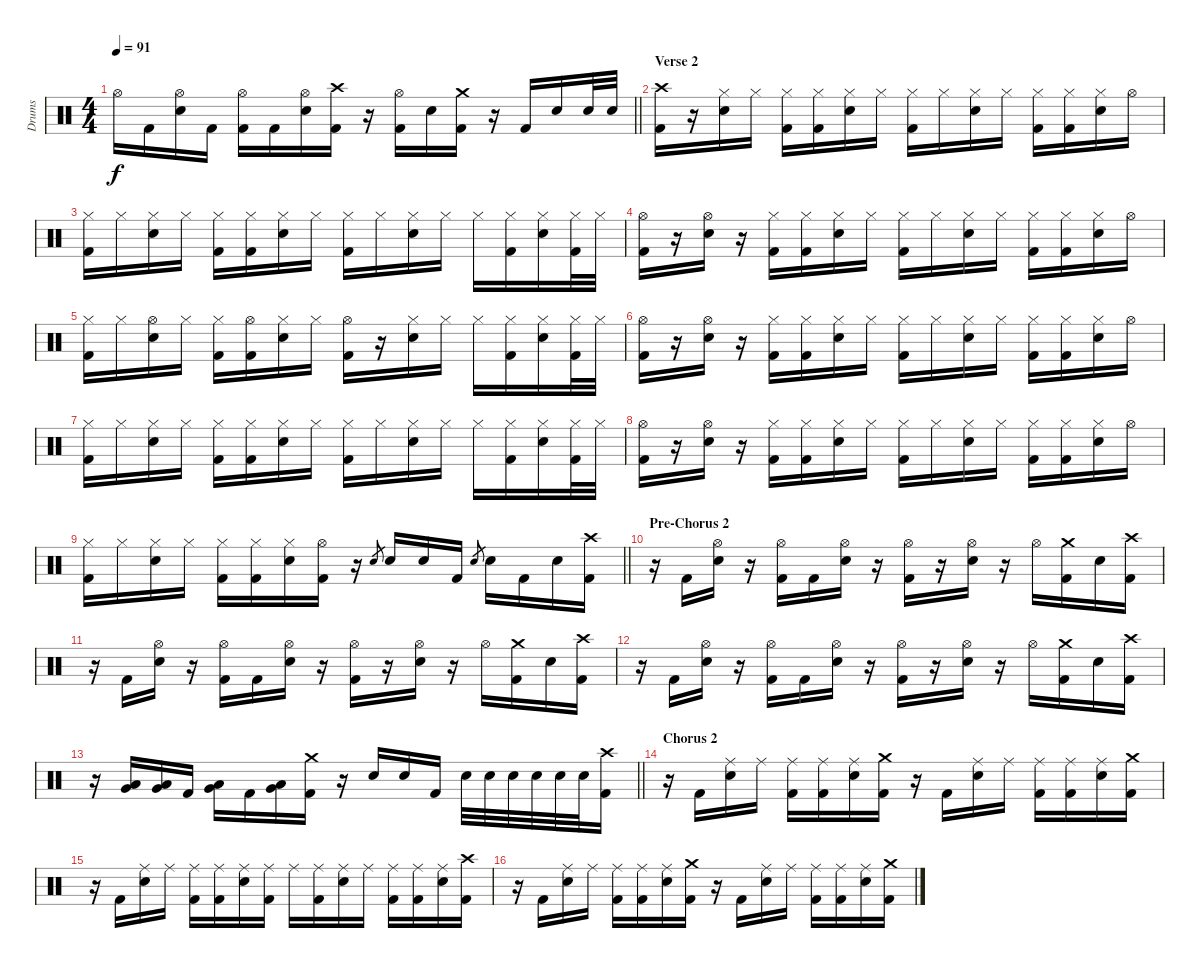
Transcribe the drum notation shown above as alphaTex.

\track ("Drums" "Drums") {instrument percussion}
\staff {score}
\articulation defaults
\ts (4 4)
\tempo 91
\clef neutral
\barLineRight lightlight
\ks c "Hi-Hat (open)".16{dy f} "Kick (hit) 2".16
("Hi-Hat (open)" "Snare (hit) 2").16 "Kick (hit) 2".16 ("Hi-Hat (open)" "Kick (hit) 2").16 "Kick (hit) 2".16 ("Hi-Hat (open)" "Snare (hit) 2").16 ("Crash high (hit)" "Kick (hit) 2").16 r.16 ("Hi-Hat (open)" "Kick (hit) 2").16 "Snare (hit) 2".16 ("Crash medium (hit)" "Kick (hit) 2").16 r.16 "Kick (hit) 2".16 "Snare (hit) 2".16 "Snare (hit) 2".32 "Snare (hit) 2".32 |
\section ("" "Verse 2")
("Crash high (hit)" "Kick (hit) 2").16 r.16 ("Hi-Hat (closed)" "Snare (hit) 2").16 "Hi-Hat (closed)".16 ("Hi-Hat (closed)" "Kick (hit) 2").16 ("Hi-Hat (closed)" "Kick (hit) 2").16 ("Hi-Hat (closed)" "Snare (hit) 2").16 "Hi-Hat (closed)".16 ("Hi-Hat (closed)" "Kick (hit) 2").16 "Hi-Hat (closed)".16 ("Hi-Hat (closed)" "Snare (hit) 2").16 "Hi-Hat (closed)".16 ("Hi-Hat (closed)" "Kick (hit) 2").16 ("Hi-Hat (closed)" "Kick (hit) 2").16 ("Hi-Hat (closed)" "Snare (hit) 2").16 "Hi-Hat (open)".16 |
("Hi-Hat (closed)" "Kick (hit) 2").16 "Hi-Hat (closed)".16 ("Hi-Hat (closed)" "Snare (hit) 2").16 "Hi-Hat (closed)".16 ("Hi-Hat (closed)" "Kick (hit) 2").16 ("Hi-Hat (closed)" "Kick (hit) 2").16 ("Hi-Hat (closed)" "Snare (hit) 2").16 "Hi-Hat (closed)".16 ("Hi-Hat (closed)" "Kick (hit) 2").16 "Hi-Hat (closed)".16 ("Hi-Hat (closed)" "Snare (hit) 2").16 "Hi-Hat (closed)".16 "Hi-Hat (closed)".16 ("Hi-Hat (closed)" "Kick (hit) 2").16 ("Hi-Hat (closed)" "Snare (hit) 2").16 ("Hi-Hat (closed)" "Kick (hit) 2").32 "Hi-Hat (closed)".32 |
("Hi-Hat (open)" "Kick (hit) 2").16 r.16 ("Hi-Hat (open)" "Snare (hit) 2").16 r.16 ("Hi-Hat (closed)" "Kick (hit) 2").16 ("Hi-Hat (closed)" "Kick (hit) 2").16 ("Hi-Hat (closed)" "Snare (hit) 2").16 "Hi-Hat (closed)".16 ("Hi-Hat (closed)" "Kick (hit) 2").16 "Hi-Hat (closed)".16 ("Hi-Hat (closed)" "Snare (hit) 2").16 "Hi-Hat (closed)".16 ("Hi-Hat (closed)" "Kick (hit) 2").16 ("Hi-Hat (closed)" "Kick (hit) 2").16 ("Hi-Hat (closed)" "Snare (hit) 2").16 "Hi-Hat (open)".16 |
("Hi-Hat (closed)" "Kick (hit) 2").16 "Hi-Hat (closed)".16 ("Hi-Hat (open)" "Snare (hit) 2").16 "Hi-Hat (closed)".16 ("Hi-Hat (closed)" "Kick (hit) 2").16 ("Hi-Hat (open)" "Kick (hit) 2").16 ("Hi-Hat (closed)" "Snare (hit) 2").16 "Hi-Hat (closed)".16 ("Hi-Hat (open)" "Kick (hit) 2").16 r.16 ("Hi-Hat (closed)" "Snare (hit) 2").16 "Hi-Hat (closed)".16 "Hi-Hat (closed)".16 ("Hi-Hat (closed)" "Kick (hit) 2").16 ("Hi-Hat (closed)" "Snare (hit) 2").16 ("Hi-Hat (closed)" "Kick (hit) 2").32 "Hi-Hat (closed)".32 |
("Hi-Hat (open)" "Kick (hit) 2").16 r.16 ("Hi-Hat (open)" "Snare (hit) 2").16 r.16 ("Hi-Hat (closed)" "Kick (hit) 2").16 ("Hi-Hat (closed)" "Kick (hit) 2").16 ("Hi-Hat (closed)" "Snare (hit) 2").16 "Hi-Hat (closed)".16 ("Hi-Hat (closed)" "Kick (hit) 2").16 "Hi-Hat (closed)".16 ("Hi-Hat (closed)" "Snare (hit) 2").16 "Hi-Hat (closed)".16 ("Hi-Hat (closed)" "Kick (hit) 2").16 ("Hi-Hat (closed)" "Kick (hit) 2").16 ("Hi-Hat (closed)" "Snare (hit) 2").16 "Hi-Hat (open)".16 |
("Hi-Hat (closed)" "Kick (hit) 2").16 "Hi-Hat (closed)".16 ("Hi-Hat (closed)" "Snare (hit) 2").16 "Hi-Hat (closed)".16 ("Hi-Hat (closed)" "Kick (hit) 2").16 ("Hi-Hat (closed)" "Kick (hit) 2").16 ("Hi-Hat (closed)" "Snare (hit) 2").16 "Hi-Hat (closed)".16 ("Hi-Hat (closed)" "Kick (hit) 2").16 "Hi-Hat (closed)".16 ("Hi-Hat (closed)" "Snare (hit) 2").16 "Hi-Hat (closed)".16 "Hi-Hat (closed)".16 ("Hi-Hat (closed)" "Kick (hit) 2").16 ("Hi-Hat (closed)" "Snare (hit) 2").16 ("Hi-Hat (closed)" "Kick (hit) 2").32 "Hi-Hat (closed)".32 |
("Hi-Hat (open)" "Kick (hit) 2").16 r.16 ("Hi-Hat (open)" "Snare (hit) 2").16 r.16 ("Hi-Hat (closed)" "Kick (hit) 2").16 ("Hi-Hat (closed)" "Kick (hit) 2").16 ("Hi-Hat (closed)" "Snare (hit) 2").16 "Hi-Hat (closed)".16 ("Hi-Hat (closed)" "Kick (hit) 2").16 "Hi-Hat (closed)".16 ("Hi-Hat (closed)" "Snare (hit) 2").16 "Hi-Hat (closed)".16 ("Hi-Hat (closed)" "Kick (hit) 2").16 ("Hi-Hat (closed)" "Kick (hit) 2").16 ("Hi-Hat (closed)" "Snare (hit) 2").16 "Hi-Hat (open)".16 |
\barLineRight lightlight
("Hi-Hat (closed)" "Kick (hit) 2").16 "Hi-Hat (closed)".16 ("Hi-Hat (closed)" "Snare (hit) 2").16 "Hi-Hat (closed)".16 ("Hi-Hat (closed)" "Kick (hit) 2").16 ("Hi-Hat (closed)" "Kick (hit) 2").16 ("Hi-Hat (closed)" "Snare (hit) 2").16 ("Hi-Hat (open)" "Kick (hit) 2").16 r.16 "Snare (hit) 2".8{gr} "Snare (hit) 2".16 "Snare (hit) 2".16 "Kick (hit) 2".16 "Snare (hit) 2".8{gr} "Snare (hit) 2".16 "Kick (hit) 2".16 "Snare (hit) 2".16 ("Crash high (hit)" "Kick (hit) 2").16 |
\section ("" "Pre-Chorus 2")
r.16 "Kick (hit) 2".16 ("Hi-Hat (open)" "Snare (hit) 2").16 r.16 ("Hi-Hat (open)" "Kick (hit) 2").16 "Kick (hit) 2".16 ("Hi-Hat (open)" "Snare (hit) 2").16 r.16 ("Hi-Hat (open)" "Kick (hit) 2").16 r.16 ("Hi-Hat (open)" "Snare (hit) 2").16 r.16 "Hi-Hat (open)".16 ("Crash medium (hit)" "Kick (hit) 2").16 "Snare (hit) 2".16 ("Crash high (hit)" "Kick (hit) 2").16 |
r.16 "Kick (hit) 2".16 ("Hi-Hat (open)" "Snare (hit) 2").16 r.16 ("Hi-Hat (open)" "Kick (hit) 2").16 "Kick (hit) 2".16 ("Hi-Hat (open)" "Snare (hit) 2").16 r.16 ("Hi-Hat (open)" "Kick (hit) 2").16 r.16 ("Hi-Hat (open)" "Snare (hit) 2").16 r.16 "Hi-Hat (open)".16 ("Crash medium (hit)" "Kick (hit) 2").16 "Snare (hit) 2".16 ("Crash high (hit)" "Kick (hit) 2").16 |
r.16 "Kick (hit) 2".16 ("Hi-Hat (open)" "Snare (hit) 2").16 r.16 ("Hi-Hat (open)" "Kick (hit) 2").16 "Kick (hit) 2".16 ("Hi-Hat (open)" "Snare (hit) 2").16 r.16 ("Hi-Hat (open)" "Kick (hit) 2").16 r.16 ("Hi-Hat (open)" "Snare (hit) 2").16 r.16 "Hi-Hat (open)".16 ("Crash medium (hit)" "Kick (hit) 2").16 "Snare (hit) 2".16 ("Crash high (hit)" "Kick (hit) 2").16 |
\barLineRight lightlight
r.16 ("Low Tom (hit)" "Very Low Tom (hit)").16 ("Low Tom (hit)" "Very Low Tom (hit)").16 "Kick (hit) 2".16 ("Low Tom (hit)" "Very Low Tom (hit)").16 "Kick (hit) 2".16 ("Low Tom (hit)" "Very Low Tom (hit)").16 ("Crash medium (hit)" "Kick (hit) 2").16 r.16 "Snare (hit) 2".16 "Snare (hit) 2".16 "Kick (hit) 2".16 "Snare (hit) 2".32 "Snare (hit) 2".32 "Snare (hit) 2".32 "Snare (hit) 2".32 "Snare (hit) 2".32 "Snare (hit) 2".32 ("Crash high (hit)" "Kick (hit) 2").16 |
\section ("" "Chorus 2")
r.16 "Kick (hit) 2".16 ("Ride (middle)" "Snare (hit) 2").16 "Ride (middle)".16 ("Ride (middle)" "Kick (hit) 2").16 ("Ride (middle)" "Kick (hit) 2").16 ("Ride (middle)" "Snare (hit) 2").16 ("Crash medium (hit)" "Kick (hit) 2").16 r.16 "Kick (hit) 2".16 ("Ride (middle)" "Snare (hit) 2").16 "Ride (middle)".16 ("Ride (middle)" "Kick (hit) 2").16 ("Ride (middle)" "Kick (hit) 2").16 ("Ride (middle)" "Snare (hit) 2").16 ("Crash medium (hit)" "Kick (hit) 2").16 |
r.16 "Kick (hit) 2".16 ("Ride (middle)" "Snare (hit) 2").16 "Ride (middle)".16 ("Ride (middle)" "Kick (hit) 2").16 ("Ride (middle)" "Kick (hit) 2").16 ("Ride (middle)" "Snare (hit) 2").16 ("Ride (middle)" "Kick (hit) 2").16 "Ride (middle)".16 ("Ride (middle)" "Kick (hit) 2").16 ("Ride (middle)" "Snare (hit) 2").16 "Ride (middle)".16 ("Ride (middle)" "Kick (hit) 2").16 ("Ride (middle)" "Kick (hit) 2").16 ("Ride (middle)" "Snare (hit) 2").16 ("Crash high (hit)" "Kick (hit) 2").16 |
r.16 "Kick (hit) 2".16 ("Ride (middle)" "Snare (hit) 2").16 "Ride (middle)".16 ("Ride (middle)" "Kick (hit) 2").16 ("Ride (middle)" "Kick (hit) 2").16 ("Ride (middle)" "Snare (hit) 2").16 ("Crash medium (hit)" "Kick (hit) 2").16 r.16 "Kick (hit) 2".16 ("Ride (middle)" "Snare (hit) 2").16 "Ride (middle)".16 ("Ride (middle)" "Kick (hit) 2").16 ("Ride (middle)" "Kick (hit) 2").16 ("Ride (middle)" "Snare (hit) 2").16 ("Crash medium (hit)" "Kick (hit) 2").16
